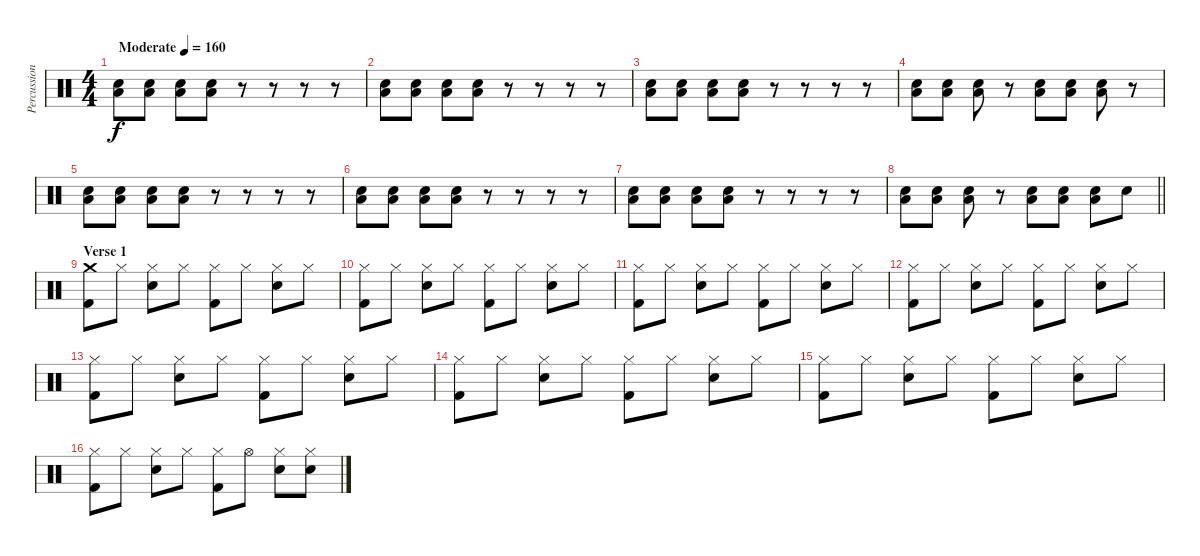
\track ("Percussion" "Percussion") {instrument percussion}
\staff {score}
\articulation defaults
\ts (4 4)
\tempo (160 "Moderate")
\clef neutral
\ks c
("Snare (hit) 2" "Low Floor Tom (hit)").8{dy f} ("Snare (hit) 2" "Low Floor Tom (hit)").8 ("Snare (hit) 2" "Low Floor Tom (hit)").8 ("Snare (hit) 2" "Low Floor Tom (hit)").8 r.8 r.8 r.8 r.8 |
("Snare (hit) 2" "Low Floor Tom (hit)").8 ("Snare (hit) 2" "Low Floor Tom (hit)").8 ("Snare (hit) 2" "Low Floor Tom (hit)").8 ("Snare (hit) 2" "Low Floor Tom (hit)").8 r.8 r.8 r.8 r.8 |
("Snare (hit) 2" "Low Floor Tom (hit)").8 ("Snare (hit) 2" "Low Floor Tom (hit)").8 ("Snare (hit) 2" "Low Floor Tom (hit)").8 ("Snare (hit) 2" "Low Floor Tom (hit)").8 r.8 r.8 r.8 r.8 |
("Snare (hit) 2" "Low Floor Tom (hit)").8 ("Snare (hit) 2" "Low Floor Tom (hit)").8 ("Snare (hit) 2" "Low Floor Tom (hit)").8 r.8 ("Snare (hit) 2" "Low Floor Tom (hit)").8 ("Snare (hit) 2" "Low Floor Tom (hit)").8 ("Snare (hit) 2" "Low Floor Tom (hit)").8 r.8 |
("Snare (hit) 2" "Low Floor Tom (hit)").8 ("Snare (hit) 2" "Low Floor Tom (hit)").8 ("Snare (hit) 2" "Low Floor Tom (hit)").8 ("Snare (hit) 2" "Low Floor Tom (hit)").8 r.8 r.8 r.8 r.8 |
("Snare (hit) 2" "Low Floor Tom (hit)").8 ("Snare (hit) 2" "Low Floor Tom (hit)").8 ("Snare (hit) 2" "Low Floor Tom (hit)").8 ("Snare (hit) 2" "Low Floor Tom (hit)").8 r.8 r.8 r.8 r.8 |
("Snare (hit) 2" "Low Floor Tom (hit)").8 ("Snare (hit) 2" "Low Floor Tom (hit)").8 ("Snare (hit) 2" "Low Floor Tom (hit)").8 ("Snare (hit) 2" "Low Floor Tom (hit)").8 r.8 r.8 r.8 r.8 |
\barLineRight lightlight
("Snare (hit) 2" "Low Floor Tom (hit)").8 ("Snare (hit) 2" "Low Floor Tom (hit)").8 ("Snare (hit) 2" "Low Floor Tom (hit)").8 r.8 ("Snare (hit) 2" "Low Floor Tom (hit)").8 ("Snare (hit) 2" "Low Floor Tom (hit)").8 ("Snare (hit) 2" "Low Floor Tom (hit)").8 "Snare (hit) 2".8 |
\section ("" "Verse 1")
("Crash medium (hit)" "Kick (hit) 2").8 "Hi-Hat (closed)".8 ("Hi-Hat (closed)" "Snare (hit) 2").8 "Hi-Hat (closed)".8 ("Hi-Hat (closed)" "Kick (hit) 2").8 "Hi-Hat (closed)".8 ("Hi-Hat (closed)" "Snare (hit) 2").8 "Hi-Hat (closed)".8 |
("Hi-Hat (closed)" "Kick (hit) 2").8 "Hi-Hat (closed)".8 ("Hi-Hat (closed)" "Snare (hit) 2").8 "Hi-Hat (closed)".8 ("Hi-Hat (closed)" "Kick (hit) 2").8 "Hi-Hat (closed)".8 ("Hi-Hat (closed)" "Snare (hit) 2").8 "Hi-Hat (closed)".8 |
("Hi-Hat (closed)" "Kick (hit) 2").8 "Hi-Hat (closed)".8 ("Hi-Hat (closed)" "Snare (hit) 2").8 "Hi-Hat (closed)".8 ("Hi-Hat (closed)" "Kick (hit) 2").8 "Hi-Hat (closed)".8 ("Hi-Hat (closed)" "Snare (hit) 2").8 "Hi-Hat (closed)".8 |
("Hi-Hat (closed)" "Kick (hit) 2").8 "Hi-Hat (closed)".8 ("Hi-Hat (closed)" "Snare (hit) 2").8 "Hi-Hat (closed)".8 ("Hi-Hat (closed)" "Kick (hit) 2").8 "Hi-Hat (closed)".8 ("Hi-Hat (closed)" "Snare (hit) 2").8 "Hi-Hat (closed)".8 |
("Hi-Hat (closed)" "Kick (hit) 2").8 "Hi-Hat (closed)".8 ("Hi-Hat (closed)" "Snare (hit) 2").8 "Hi-Hat (closed)".8 ("Hi-Hat (closed)" "Kick (hit) 2").8 "Hi-Hat (closed)".8 ("Hi-Hat (closed)" "Snare (hit) 2").8 "Hi-Hat (closed)".8 |
("Hi-Hat (closed)" "Kick (hit) 2").8 "Hi-Hat (closed)".8 ("Hi-Hat (closed)" "Snare (hit) 2").8 "Hi-Hat (closed)".8 ("Hi-Hat (closed)" "Kick (hit) 2").8 "Hi-Hat (closed)".8 ("Hi-Hat (closed)" "Snare (hit) 2").8 "Hi-Hat (closed)".8 |
("Hi-Hat (closed)" "Kick (hit) 2").8 "Hi-Hat (closed)".8 ("Hi-Hat (closed)" "Snare (hit) 2").8 "Hi-Hat (closed)".8 ("Hi-Hat (closed)" "Kick (hit) 2").8 "Hi-Hat (closed)".8 ("Hi-Hat (closed)" "Snare (hit) 2").8 "Hi-Hat (closed)".8 |
("Hi-Hat (closed)" "Kick (hit) 2").8 "Hi-Hat (closed)".8 ("Hi-Hat (closed)" "Snare (hit) 2").8 "Hi-Hat (closed)".8 ("Hi-Hat (closed)" "Kick (hit) 2").8 "Hi-Hat (open)".8 ("Hi-Hat (closed)" "Snare (hit) 2").8 ("Hi-Hat (closed)" "Snare (hit) 2").8
